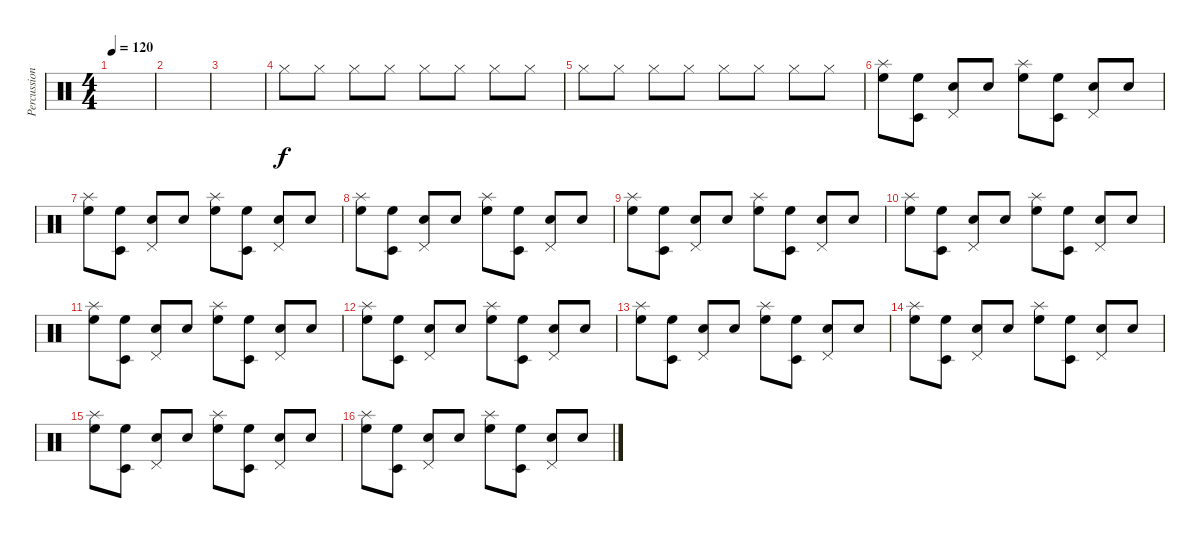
\track ("Percussion" "Percussion") {instrument percussion}
\staff {score}
\articulation defaults
\ts (4 4)
\tempo 120
\clef neutral
\ks c
|
|
|
"Hi-Hat (closed)".8 "Hi-Hat (closed)".8 "Hi-Hat (closed)".8 "Hi-Hat (closed)".8 "Hi-Hat (closed)".8 "Hi-Hat (closed)".8 "Hi-Hat (closed)".8 "Hi-Hat (closed)".8 |
"Hi-Hat (closed)".8 "Hi-Hat (closed)".8 "Hi-Hat (closed)".8 "Hi-Hat (closed)".8 "Hi-Hat (closed)".8 "Hi-Hat (closed)".8 "Hi-Hat (closed)".8 "Hi-Hat (closed)".8 |
("Splash (hit)" "High Floor Tom (hit)").8 ("Timbale low (hit)" "High Floor Tom (hit)").8 ("Pedal Hi-Hat (hit)" "Electric Snare (hit)").8 "Electric Snare (hit)".8 ("Splash (hit)" "High Floor Tom (hit)").8 ("Timbale low (hit)" "High Floor Tom (hit)").8 ("Pedal Hi-Hat (hit)" "Electric Snare (hit)").8 "Electric Snare (hit)".8 |
("Splash (hit)" "High Floor Tom (hit)").8 ("Timbale low (hit)" "High Floor Tom (hit)").8 ("Pedal Hi-Hat (hit)" "Electric Snare (hit)").8 "Electric Snare (hit)".8 ("Splash (hit)" "High Floor Tom (hit)").8 ("Timbale low (hit)" "High Floor Tom (hit)").8 ("Pedal Hi-Hat (hit)" "Electric Snare (hit)").8 "Electric Snare (hit)".8 |
("Splash (hit)" "High Floor Tom (hit)").8 ("Timbale low (hit)" "High Floor Tom (hit)").8 ("Pedal Hi-Hat (hit)" "Electric Snare (hit)").8 "Electric Snare (hit)".8 ("Splash (hit)" "High Floor Tom (hit)").8 ("Timbale low (hit)" "High Floor Tom (hit)").8 ("Pedal Hi-Hat (hit)" "Electric Snare (hit)").8 "Electric Snare (hit)".8 |
("Splash (hit)" "High Floor Tom (hit)").8 ("Timbale low (hit)" "High Floor Tom (hit)").8 ("Pedal Hi-Hat (hit)" "Electric Snare (hit)").8 "Electric Snare (hit)".8 ("Splash (hit)" "High Floor Tom (hit)").8 ("Timbale low (hit)" "High Floor Tom (hit)").8 ("Pedal Hi-Hat (hit)" "Electric Snare (hit)").8 "Electric Snare (hit)".8 |
("Splash (hit)" "High Floor Tom (hit)").8 ("Timbale low (hit)" "High Floor Tom (hit)").8 ("Pedal Hi-Hat (hit)" "Electric Snare (hit)").8 "Electric Snare (hit)".8 ("Splash (hit)" "High Floor Tom (hit)").8 ("Timbale low (hit)" "High Floor Tom (hit)").8 ("Pedal Hi-Hat (hit)" "Electric Snare (hit)").8 "Electric Snare (hit)".8 |
("Splash (hit)" "High Floor Tom (hit)").8 ("Timbale low (hit)" "High Floor Tom (hit)").8 ("Pedal Hi-Hat (hit)" "Electric Snare (hit)").8 "Electric Snare (hit)".8 ("Splash (hit)" "High Floor Tom (hit)").8 ("Timbale low (hit)" "High Floor Tom (hit)").8 ("Pedal Hi-Hat (hit)" "Electric Snare (hit)").8 "Electric Snare (hit)".8 |
("Splash (hit)" "High Floor Tom (hit)").8 ("Timbale low (hit)" "High Floor Tom (hit)").8 ("Pedal Hi-Hat (hit)" "Electric Snare (hit)").8 "Electric Snare (hit)".8 ("Splash (hit)" "High Floor Tom (hit)").8 ("Timbale low (hit)" "High Floor Tom (hit)").8 ("Pedal Hi-Hat (hit)" "Electric Snare (hit)").8 "Electric Snare (hit)".8 |
("Splash (hit)" "High Floor Tom (hit)").8 ("Timbale low (hit)" "High Floor Tom (hit)").8 ("Pedal Hi-Hat (hit)" "Electric Snare (hit)").8 "Electric Snare (hit)".8 ("Splash (hit)" "High Floor Tom (hit)").8 ("Timbale low (hit)" "High Floor Tom (hit)").8 ("Pedal Hi-Hat (hit)" "Electric Snare (hit)").8 "Electric Snare (hit)".8 |
("Splash (hit)" "High Floor Tom (hit)").8 ("Timbale low (hit)" "High Floor Tom (hit)").8 ("Pedal Hi-Hat (hit)" "Electric Snare (hit)").8 "Electric Snare (hit)".8 ("Splash (hit)" "High Floor Tom (hit)").8 ("Timbale low (hit)" "High Floor Tom (hit)").8 ("Pedal Hi-Hat (hit)" "Electric Snare (hit)").8 "Electric Snare (hit)".8 |
("Splash (hit)" "High Floor Tom (hit)").8 ("Timbale low (hit)" "High Floor Tom (hit)").8 ("Pedal Hi-Hat (hit)" "Electric Snare (hit)").8 "Electric Snare (hit)".8 ("Splash (hit)" "High Floor Tom (hit)").8 ("Timbale low (hit)" "High Floor Tom (hit)").8 ("Pedal Hi-Hat (hit)" "Electric Snare (hit)").8 "Electric Snare (hit)".8 |
("Splash (hit)" "High Floor Tom (hit)").8 ("Timbale low (hit)" "High Floor Tom (hit)").8 ("Pedal Hi-Hat (hit)" "Electric Snare (hit)").8 "Electric Snare (hit)".8 ("Splash (hit)" "High Floor Tom (hit)").8 ("Timbale low (hit)" "High Floor Tom (hit)").8 ("Pedal Hi-Hat (hit)" "Electric Snare (hit)").8 "Electric Snare (hit)".8
